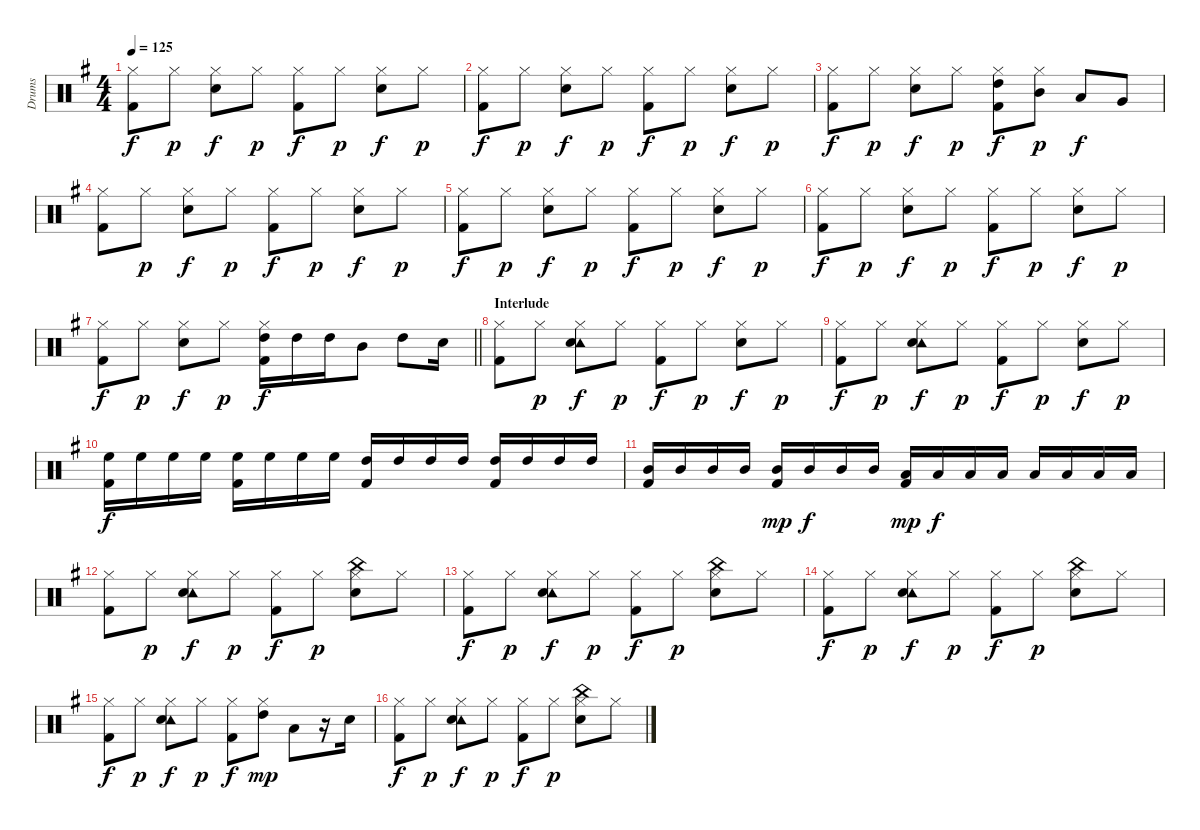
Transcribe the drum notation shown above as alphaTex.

\track ("Drums" "Drums") {instrument percussion}
\staff {score}
\articulation defaults
\ts (4 4)
\tempo 125
\clef neutral
\ks g
("Hi-Hat (closed)" "Kick (hit) 2").8{dy f} "Hi-Hat (closed)".8{dy p} ("Hi-Hat (closed)" "Electric Snare (hit)").8{dy f} "Hi-Hat (closed)".8{dy p} ("Hi-Hat (closed)" "Kick (hit) 2").8{dy f} "Hi-Hat (closed)".8{dy p} ("Hi-Hat (closed)" "Electric Snare (hit)").8{dy f} "Hi-Hat (closed)".8{dy p} |
("Hi-Hat (closed)" "Kick (hit) 2").8{dy f} "Hi-Hat (closed)".8{dy p} ("Hi-Hat (closed)" "Electric Snare (hit)").8{dy f} "Hi-Hat (closed)".8{dy p} ("Hi-Hat (closed)" "Kick (hit) 2").8{dy f} "Hi-Hat (closed)".8{dy p} ("Hi-Hat (closed)" "Electric Snare (hit)").8{dy f} "Hi-Hat (closed)".8{dy p} |
("Hi-Hat (closed)" "Kick (hit) 2").8{dy f} "Hi-Hat (closed)".8{dy p} ("Hi-Hat (closed)" "Electric Snare (hit)").8{dy f} "Hi-Hat (closed)".8{dy p} ("Hi-Hat (closed)" "High Tom (hit)" "Kick (hit) 2").8{dy f} ("Hi-Hat (closed)" "Mid Tom (hit)").8{dy p} "Low Tom (hit)".8{dy f} "Very Low Tom (hit)".8 |
("Hi-Hat (closed)" "Kick (hit) 2").8 "Hi-Hat (closed)".8{dy p} ("Hi-Hat (closed)" "Electric Snare (hit)").8{dy f} "Hi-Hat (closed)".8{dy p} ("Hi-Hat (closed)" "Kick (hit) 2").8{dy f} "Hi-Hat (closed)".8{dy p} ("Hi-Hat (closed)" "Electric Snare (hit)").8{dy f} "Hi-Hat (closed)".8{dy p} |
("Hi-Hat (closed)" "Kick (hit) 2").8{dy f} "Hi-Hat (closed)".8{dy p} ("Hi-Hat (closed)" "Electric Snare (hit)").8{dy f} "Hi-Hat (closed)".8{dy p} ("Hi-Hat (closed)" "Kick (hit) 2").8{dy f} "Hi-Hat (closed)".8{dy p} ("Hi-Hat (closed)" "Electric Snare (hit)").8{dy f} "Hi-Hat (closed)".8{dy p} |
("Hi-Hat (closed)" "Kick (hit) 2").8{dy f} "Hi-Hat (closed)".8{dy p} ("Hi-Hat (closed)" "Electric Snare (hit)").8{dy f} "Hi-Hat (closed)".8{dy p} ("Hi-Hat (closed)" "Kick (hit) 2").8{dy f} "Hi-Hat (closed)".8{dy p} ("Hi-Hat (closed)" "Electric Snare (hit)").8{dy f} "Hi-Hat (closed)".8{dy p} |
\barLineRight lightlight
("Hi-Hat (closed)" "Kick (hit) 2").8{dy f} "Hi-Hat (closed)".8{dy p} ("Hi-Hat (closed)" "Electric Snare (hit)").8{dy f} "Hi-Hat (closed)".8{dy p} ("Hi-Hat (closed)" "High Tom (hit)" "Kick (hit) 2").16{dy f} "High Tom (hit)".16 "High Tom (hit)".16 "Mid Tom (hit)".8 "High Tom (hit)".8 "Electric Snare (hit)".16 |
\section ("" "Interlude")
("Hi-Hat (closed)" "Kick (hit) 2").8 "Hi-Hat (closed)".8{dy p} ("Hi-Hat (closed)" "Tambourine (hit)" "Electric Snare (hit)").8{dy f} "Hi-Hat (closed)".8{dy p} ("Hi-Hat (closed)" "Kick (hit) 2").8{dy f} "Hi-Hat (closed)".8{dy p} ("Hi-Hat (closed)" "Electric Snare (hit)").8{dy f} "Hi-Hat (closed)".8{dy p} |
("Hi-Hat (closed)" "Kick (hit) 2").8{dy f} "Hi-Hat (closed)".8{dy p} ("Hi-Hat (closed)" "Tambourine (hit)" "Electric Snare (hit)").8{dy f} "Hi-Hat (closed)".8{dy p} ("Hi-Hat (closed)" "Kick (hit) 2").8{dy f} "Hi-Hat (closed)".8{dy p} ("Hi-Hat (closed)" "Electric Snare (hit)").8{dy f} "Hi-Hat (closed)".8{dy p} |
("High Floor Tom (hit)" "Kick (hit) 2").16{dy f} "High Floor Tom (hit)".16 "High Floor Tom (hit)".16 "High Floor Tom (hit)".16 ("High Floor Tom (hit)" "Kick (hit) 2").16 "High Floor Tom (hit)".16 "High Floor Tom (hit)".16 "High Floor Tom (hit)".16 ("High Tom (hit)" "Kick (hit) 2").16 "High Tom (hit)".16 "High Tom (hit)".16 "High Tom (hit)".16 ("High Tom (hit)" "Kick (hit) 2").16 "High Tom (hit)".16 "High Tom (hit)".16 "High Tom (hit)".16 |
("Mid Tom (hit)" "Kick (hit) 2").16 "Mid Tom (hit)".16 "Mid Tom (hit)".16 "Mid Tom (hit)".16 ("Mid Tom (hit)" "Kick (hit) 2").16{dy mp} "Mid Tom (hit)".16{dy f} "Mid Tom (hit)".16 "Mid Tom (hit)".16 ("Low Tom (hit)" "Kick (hit) 2").16{dy mp} "Low Tom (hit)".16{dy f} "Low Tom (hit)".16 "Low Tom (hit)".16 "Low Tom (hit)".16 "Low Tom (hit)".16 "Low Tom (hit)".16 "Low Tom (hit)".16 |
("Hi-Hat (closed)" "Kick (hit) 2").8 "Hi-Hat (closed)".8{dy p} ("Hi-Hat (closed)" "Tambourine (hit)" "Electric Snare (hit)").8{dy f} "Hi-Hat (closed)".8{dy p} ("Hi-Hat (closed)" "Kick (hit) 2").8{dy f} "Hi-Hat (closed)".8{dy p} ("Hi-Hat (closed)" "China (hit)" "Electric Snare (hit)").8 "Hi-Hat (closed)".8 |
("Hi-Hat (closed)" "Kick (hit) 2").8{dy f} "Hi-Hat (closed)".8{dy p} ("Hi-Hat (closed)" "Tambourine (hit)" "Electric Snare (hit)").8{dy f} "Hi-Hat (closed)".8{dy p} ("Hi-Hat (closed)" "Kick (hit) 2").8{dy f} "Hi-Hat (closed)".8{dy p} ("Hi-Hat (closed)" "China (hit)" "Electric Snare (hit)").8 "Hi-Hat (closed)".8 |
("Hi-Hat (closed)" "Kick (hit) 2").8{dy f} "Hi-Hat (closed)".8{dy p} ("Hi-Hat (closed)" "Tambourine (hit)" "Electric Snare (hit)").8{dy f} "Hi-Hat (closed)".8{dy p} ("Hi-Hat (closed)" "Kick (hit) 2").8{dy f} "Hi-Hat (closed)".8{dy p} ("Hi-Hat (closed)" "China (hit)" "Electric Snare (hit)").8 "Hi-Hat (closed)".8 |
("Hi-Hat (closed)" "Kick (hit) 2").8{dy f} "Hi-Hat (closed)".8{dy p} ("Hi-Hat (closed)" "Tambourine (hit)" "Electric Snare (hit)").8{dy f} "Hi-Hat (closed)".8{dy p} ("Hi-Hat (closed)" "Kick (hit) 2").8{dy f} ("Hi-Hat (closed)" "High Tom (hit)").8{dy mp} "Low Tom (hit)".8 r.16 "Electric Snare (hit)".16 |
("Hi-Hat (closed)" "Kick (hit) 2").8{dy f} "Hi-Hat (closed)".8{dy p} ("Hi-Hat (closed)" "Tambourine (hit)" "Electric Snare (hit)").8{dy f} "Hi-Hat (closed)".8{dy p} ("Hi-Hat (closed)" "Kick (hit) 2").8{dy f} "Hi-Hat (closed)".8{dy p} ("Hi-Hat (closed)" "China (hit)" "Electric Snare (hit)").8 "Hi-Hat (closed)".8
